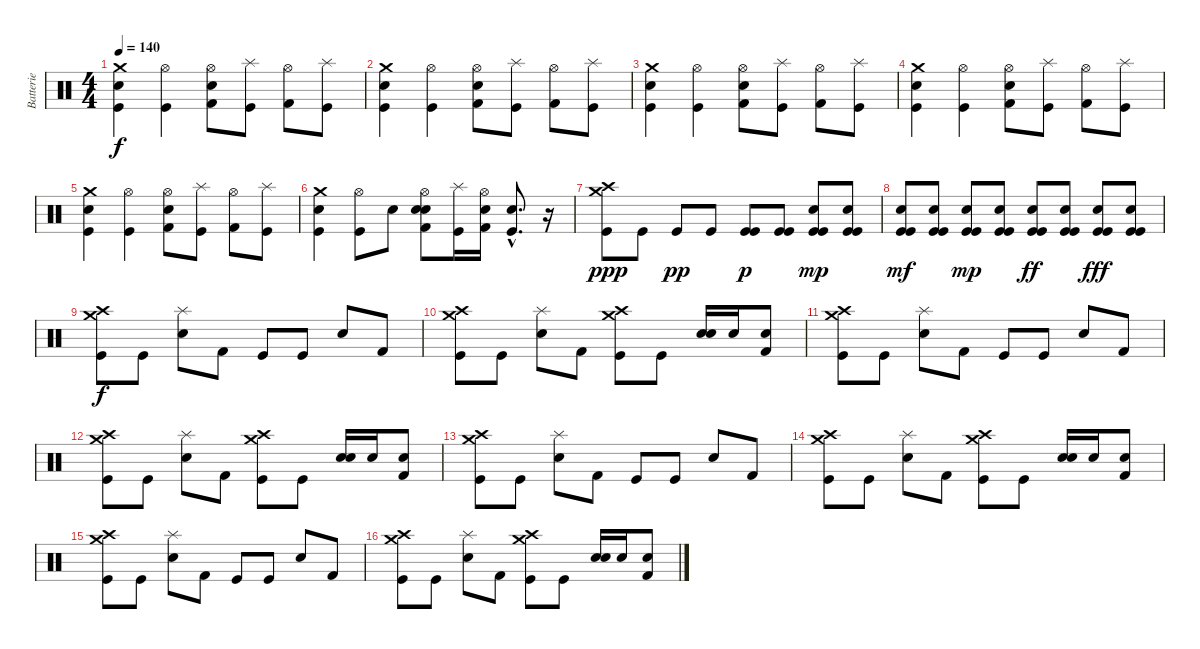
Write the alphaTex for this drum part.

\track ("Batterie" "Batterie") {instrument percussion}
\staff {score}
\articulation defaults
\ts (4 4)
\tempo 140
\clef neutral
\ks c
("Crash medium (hit)" "Electric Snare (hit)" "Kick (hit)").4{dy f} ("Hi-Hat (open)" "Kick (hit)").4 ("Hi-Hat (open)" "Electric Snare (hit)" "Kick (hit) 2").8 ("Splash (hit)" "Kick (hit)").8 ("Hi-Hat (open)" "Kick (hit) 2").8 ("Splash (hit)" "Kick (hit)").8 |
("Crash medium (hit)" "Electric Snare (hit)" "Kick (hit)").4 ("Hi-Hat (open)" "Kick (hit)").4 ("Hi-Hat (open)" "Electric Snare (hit)" "Kick (hit) 2").8 ("Splash (hit)" "Kick (hit)").8 ("Hi-Hat (open)" "Kick (hit) 2").8 ("Splash (hit)" "Kick (hit)").8 |
("Crash medium (hit)" "Electric Snare (hit)" "Kick (hit)").4 ("Hi-Hat (open)" "Kick (hit)").4 ("Hi-Hat (open)" "Electric Snare (hit)" "Kick (hit) 2").8 ("Splash (hit)" "Kick (hit)").8 ("Hi-Hat (open)" "Kick (hit) 2").8 ("Splash (hit)" "Kick (hit)").8 |
("Crash medium (hit)" "Electric Snare (hit)" "Kick (hit)").4 ("Hi-Hat (open)" "Kick (hit)").4 ("Hi-Hat (open)" "Electric Snare (hit)" "Kick (hit) 2").8 ("Splash (hit)" "Kick (hit)").8 ("Hi-Hat (open)" "Kick (hit) 2").8 ("Splash (hit)" "Kick (hit)").8 |
("Crash medium (hit)" "Electric Snare (hit)" "Kick (hit)").4 ("Hi-Hat (open)" "Kick (hit)").4 ("Hi-Hat (open)" "Electric Snare (hit)" "Kick (hit) 2").8 ("Splash (hit)" "Kick (hit)").8 ("Hi-Hat (open)" "Kick (hit) 2").8 ("Splash (hit)" "Kick (hit)").8 |
("Crash medium (hit)" "Electric Snare (hit)" "Kick (hit)").4 ("Hi-Hat (open)" "Kick (hit)").8 "Snare (hit) 2".8 ("Hi-Hat (open)" "Snare (hit) 2" "Electric Snare (hit)" "Kick (hit) 2").8 ("Splash (hit)" "Kick (hit)").16 ("Hi-Hat (open)" "Snare (hit) 2" "Kick (hit) 2").16 ("Snare (hit) 2"{hac} "Kick (hit)"{hac}).8{d} r.16 |
("Crash medium (hit)" "Crash high (hit)" "Kick (hit)").8{dy ppp} "Kick (hit)".8 "Kick (hit)".8{dy pp} "Kick (hit)".8 ("Kick (hit)" "Kick (hit)").8{dy p} ("Kick (hit)" "Kick (hit)").8 ("Electric Snare (hit)" "Kick (hit)" "Kick (hit)").8{dy mp} ("Electric Snare (hit)" "Kick (hit)" "Kick (hit)").8 |
("Electric Snare (hit)" "Kick (hit)" "Kick (hit)").8{dy mf} ("Electric Snare (hit)" "Kick (hit)" "Kick (hit)").8 ("Electric Snare (hit)" "Kick (hit)" "Kick (hit)").8{dy mp} ("Electric Snare (hit)" "Kick (hit)" "Kick (hit)").8 ("Electric Snare (hit)" "Kick (hit)" "Kick (hit)").8{dy ff} ("Electric Snare (hit)" "Kick (hit)" "Kick (hit)").8 ("Electric Snare (hit)" "Kick (hit)" "Kick (hit)").8{dy fff} ("Electric Snare (hit)" "Kick (hit)" "Kick (hit)").8 |
("Crash medium (hit)" "Crash high (hit)" "Kick (hit)").8{dy f} "Kick (hit)".8 ("Splash (hit)" "Electric Snare (hit)").8 "Kick (hit) 2".8 "Kick (hit)".8 "Kick (hit)".8 "Snare (hit) 2".8 "Kick (hit) 2".8 |
("Crash medium (hit)" "Crash high (hit)" "Kick (hit)").8 "Kick (hit)".8 ("Splash (hit)" "Electric Snare (hit)").8 "Kick (hit) 2".8 ("Crash medium (hit)" "Crash high (hit)" "Kick (hit)").8 "Kick (hit)".8 ("Snare (hit) 2" "Electric Snare (hit)").16 "Electric Snare (hit)".16 ("Electric Snare (hit)" "Kick (hit) 2").8 |
("Crash medium (hit)" "Crash high (hit)" "Kick (hit)").8 "Kick (hit)".8 ("Splash (hit)" "Electric Snare (hit)").8 "Kick (hit) 2".8 "Kick (hit)".8 "Kick (hit)".8 "Snare (hit) 2".8 "Kick (hit) 2".8 |
("Crash medium (hit)" "Crash high (hit)" "Kick (hit)").8 "Kick (hit)".8 ("Splash (hit)" "Electric Snare (hit)").8 "Kick (hit) 2".8 ("Crash medium (hit)" "Crash high (hit)" "Kick (hit)").8 "Kick (hit)".8 ("Snare (hit) 2" "Electric Snare (hit)").16 "Electric Snare (hit)".16 ("Electric Snare (hit)" "Kick (hit) 2").8 |
("Crash medium (hit)" "Crash high (hit)" "Kick (hit)").8 "Kick (hit)".8 ("Splash (hit)" "Electric Snare (hit)").8 "Kick (hit) 2".8 "Kick (hit)".8 "Kick (hit)".8 "Snare (hit) 2".8 "Kick (hit) 2".8 |
("Crash medium (hit)" "Crash high (hit)" "Kick (hit)").8 "Kick (hit)".8 ("Splash (hit)" "Electric Snare (hit)").8 "Kick (hit) 2".8 ("Crash medium (hit)" "Crash high (hit)" "Kick (hit)").8 "Kick (hit)".8 ("Snare (hit) 2" "Electric Snare (hit)").16 "Electric Snare (hit)".16 ("Electric Snare (hit)" "Kick (hit) 2").8 |
("Crash medium (hit)" "Crash high (hit)" "Kick (hit)").8 "Kick (hit)".8 ("Splash (hit)" "Electric Snare (hit)").8 "Kick (hit) 2".8 "Kick (hit)".8 "Kick (hit)".8 "Snare (hit) 2".8 "Kick (hit) 2".8 |
("Crash medium (hit)" "Crash high (hit)" "Kick (hit)").8 "Kick (hit)".8 ("Splash (hit)" "Electric Snare (hit)").8 "Kick (hit) 2".8 ("Crash medium (hit)" "Crash high (hit)" "Kick (hit)").8 "Kick (hit)".8 ("Snare (hit) 2" "Electric Snare (hit)").16 "Electric Snare (hit)".16 ("Electric Snare (hit)" "Kick (hit) 2").8
